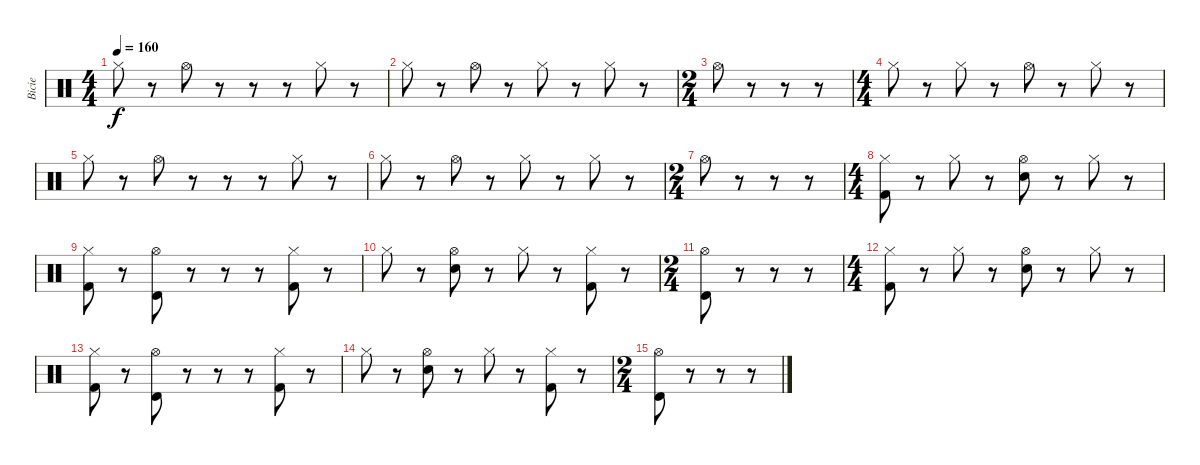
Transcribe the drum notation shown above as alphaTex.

\track ("Bicie" "Bicie") {instrument percussion}
\staff {score}
\articulation defaults
\ts (4 4)
\tempo 160
\clef neutral
\ks c "Hi-Hat (closed)".8{dy f}
r.8 "Hi-Hat (open)".8 r.8 r.8 r.8 "Hi-Hat (closed)".8 r.8 |
"Hi-Hat (closed)".8 r.8 "Hi-Hat (open)".8 r.8 "Hi-Hat (closed)".8 r.8 "Hi-Hat (closed)".8 r.8 |
\ts (2 4)
"Hi-Hat (open)".8 r.8 r.8 r.8 |
\ts (4 4)
"Hi-Hat (closed)".8 r.8 "Hi-Hat (closed)".8 r.8 "Hi-Hat (open)".8 r.8 "Hi-Hat (closed)".8 r.8 |
"Hi-Hat (closed)".8 r.8 "Hi-Hat (open)".8 r.8 r.8 r.8 "Hi-Hat (closed)".8 r.8 |
"Hi-Hat (closed)".8 r.8 "Hi-Hat (open)".8 r.8 "Hi-Hat (closed)".8 r.8 "Hi-Hat (closed)".8 r.8 |
\ts (2 4)
"Hi-Hat (open)".8 r.8 r.8 r.8 |
\ts (4 4)
("Kick (hit) 2" "Hi-Hat (closed)").8 r.8 "Hi-Hat (closed)".8 r.8 ("Snare (hit) 2" "Hi-Hat (open)").8 r.8 "Hi-Hat (closed)".8 r.8 |
("Kick (hit) 2" "Hi-Hat (closed)").8 r.8 ("Timbale high (hit)" "Hi-Hat (open)").8 r.8 r.8 r.8 ("Kick (hit) 2" "Hi-Hat (closed)").8 r.8 |
"Hi-Hat (closed)".8 r.8 ("Snare (hit) 2" "Hi-Hat (open)").8 r.8 "Hi-Hat (closed)".8 r.8 ("Kick (hit) 2" "Hi-Hat (closed)").8 r.8 |
\ts (2 4)
("Timbale high (hit)" "Hi-Hat (open)").8 r.8 r.8 r.8 |
\ts (4 4)
("Kick (hit) 2" "Hi-Hat (closed)").8 r.8 "Hi-Hat (closed)".8 r.8 ("Snare (hit) 2" "Hi-Hat (open)").8 r.8 "Hi-Hat (closed)".8 r.8 |
("Kick (hit) 2" "Hi-Hat (closed)").8 r.8 ("Timbale high (hit)" "Hi-Hat (open)").8 r.8 r.8 r.8 ("Kick (hit) 2" "Hi-Hat (closed)").8 r.8 |
"Hi-Hat (closed)".8 r.8 ("Snare (hit) 2" "Hi-Hat (open)").8 r.8 "Hi-Hat (closed)".8 r.8 ("Kick (hit) 2" "Hi-Hat (closed)").8 r.8 |
\ts (2 4)
("Timbale high (hit)" "Hi-Hat (open)").8 r.8 r.8 r.8
